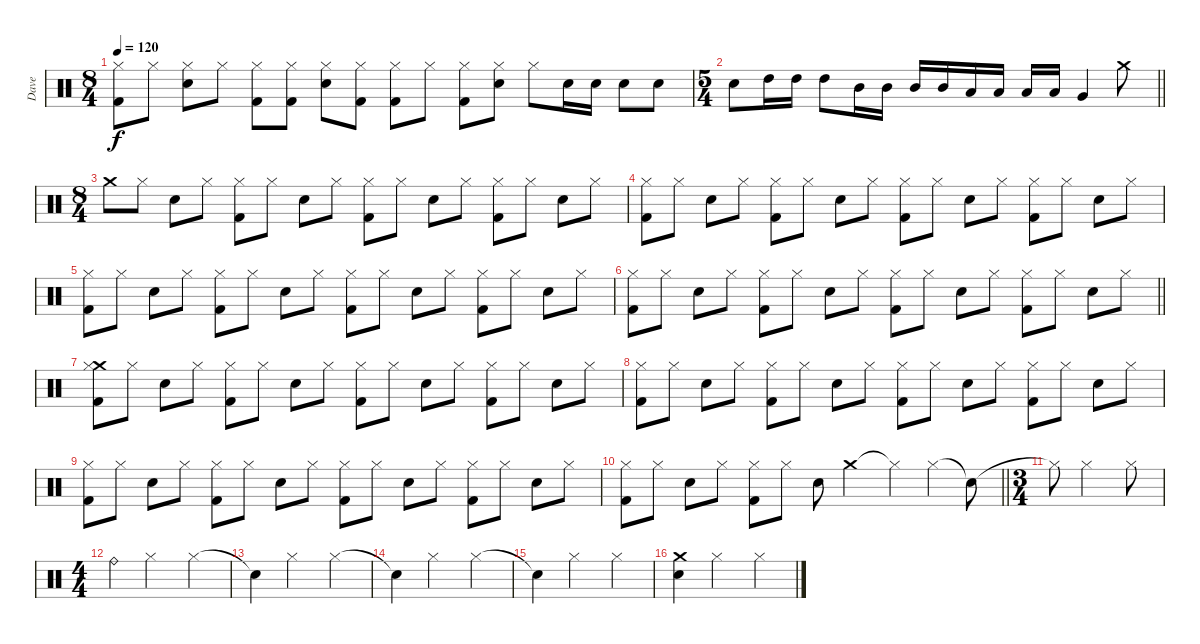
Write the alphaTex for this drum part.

\track ("Dave" "Dave") {instrument percussion}
\staff {score}
\articulation defaults
\ts (8 4)
\tempo 120
\clef neutral
\ks c
("Hi-Hat (closed)" "Kick (hit) 2").8{dy f} "Hi-Hat (closed)".8 ("Hi-Hat (closed)" "Snare (hit) 2").8 "Hi-Hat (closed)".8 ("Hi-Hat (closed)" "Kick (hit) 2").8 ("Hi-Hat (closed)" "Kick (hit) 2").8 ("Hi-Hat (closed)" "Snare (hit) 2").8 ("Hi-Hat (closed)" "Kick (hit) 2").8 ("Hi-Hat (closed)" "Kick (hit) 2").8 "Hi-Hat (closed)".8 ("Hi-Hat (closed)" "Kick (hit) 2").8 ("Hi-Hat (closed)" "Snare (hit) 2").8 "Hi-Hat (closed)".8 "Snare (hit) 2".16 "Snare (hit) 2".16 "Snare (hit) 2".8 "Snare (hit) 2".8 |
\ts (5 4)
\barLineRight lightlight "Snare (hit) 2".8 "High Tom (hit)".16 "High Tom (hit)".16 "High Tom (hit)".8 "Mid Tom (hit)".16 "Mid Tom (hit)".16 "Mid Tom (hit)".16 "Mid Tom (hit)".16 "Low Tom (hit)".16 "Low Tom (hit)".16 "Low Tom (hit)".16 "Low Tom (hit)".16 "Very Low Tom (hit)".4 "Crash medium (hit)".8
|
\ts (8 4)
"Crash medium (hit)".8 "Hi-Hat (closed)".8 "Snare (hit) 2".8 "Hi-Hat (closed)".8 ("Hi-Hat (closed)" "Kick (hit) 2").8 "Hi-Hat (closed)".8 "Snare (hit) 2".8 "Hi-Hat (closed)".8 ("Hi-Hat (closed)" "Kick (hit) 2").8 "Hi-Hat (closed)".8 "Snare (hit) 2".8 "Hi-Hat (closed)".8 ("Hi-Hat (closed)" "Kick (hit) 2").8 "Hi-Hat (closed)".8 "Snare (hit) 2".8 "Hi-Hat (closed)".8 |
("Hi-Hat (closed)" "Kick (hit) 2").8 "Hi-Hat (closed)".8 "Snare (hit) 2".8 "Hi-Hat (closed)".8 ("Hi-Hat (closed)" "Kick (hit) 2").8 "Hi-Hat (closed)".8 "Snare (hit) 2".8 "Hi-Hat (closed)".8 ("Hi-Hat (closed)" "Kick (hit) 2").8 "Hi-Hat (closed)".8 "Snare (hit) 2".8 "Hi-Hat (closed)".8 ("Hi-Hat (closed)" "Kick (hit) 2").8 "Hi-Hat (closed)".8 "Snare (hit) 2".8 "Hi-Hat (closed)".8 |
("Hi-Hat (closed)" "Kick (hit) 2").8 "Hi-Hat (closed)".8 "Snare (hit) 2".8 "Hi-Hat (closed)".8 ("Hi-Hat (closed)" "Kick (hit) 2").8 "Hi-Hat (closed)".8 "Snare (hit) 2".8 "Hi-Hat (closed)".8 ("Hi-Hat (closed)" "Kick (hit) 2").8 "Hi-Hat (closed)".8 "Snare (hit) 2".8 "Hi-Hat (closed)".8 ("Hi-Hat (closed)" "Kick (hit) 2").8 "Hi-Hat (closed)".8 "Snare (hit) 2".8 "Hi-Hat (closed)".8 |
\barLineRight lightlight
("Hi-Hat (closed)" "Kick (hit) 2").8 "Hi-Hat (closed)".8 "Snare (hit) 2".8 "Hi-Hat (closed)".8 ("Hi-Hat (closed)" "Kick (hit) 2").8 "Hi-Hat (closed)".8 "Snare (hit) 2".8 "Hi-Hat (closed)".8 ("Hi-Hat (closed)" "Kick (hit) 2").8 "Hi-Hat (closed)".8 "Snare (hit) 2".8 "Hi-Hat (closed)".8 ("Hi-Hat (closed)" "Kick (hit) 2").8 "Hi-Hat (closed)".8 "Snare (hit) 2".8 "Hi-Hat (closed)".8 |
("Crash medium (hit)" "Hi-Hat (closed)" "Kick (hit) 2").8 "Hi-Hat (closed)".8 "Snare (hit) 2".8 "Hi-Hat (closed)".8 ("Hi-Hat (closed)" "Kick (hit) 2").8 "Hi-Hat (closed)".8 "Snare (hit) 2".8 "Hi-Hat (closed)".8 ("Hi-Hat (closed)" "Kick (hit) 2").8 "Hi-Hat (closed)".8 "Snare (hit) 2".8 "Hi-Hat (closed)".8 ("Hi-Hat (closed)" "Kick (hit) 2").8 "Hi-Hat (closed)".8 "Snare (hit) 2".8 "Hi-Hat (closed)".8 |
("Hi-Hat (closed)" "Kick (hit) 2").8 "Hi-Hat (closed)".8 "Snare (hit) 2".8 "Hi-Hat (closed)".8 ("Hi-Hat (closed)" "Kick (hit) 2").8 "Hi-Hat (closed)".8 "Snare (hit) 2".8 "Hi-Hat (closed)".8 ("Hi-Hat (closed)" "Kick (hit) 2").8 "Hi-Hat (closed)".8 "Snare (hit) 2".8 "Hi-Hat (closed)".8 ("Hi-Hat (closed)" "Kick (hit) 2").8 "Hi-Hat (closed)".8 "Snare (hit) 2".8 "Hi-Hat (closed)".8 |
("Hi-Hat (closed)" "Kick (hit) 2").8 "Hi-Hat (closed)".8 "Snare (hit) 2".8 "Hi-Hat (closed)".8 ("Hi-Hat (closed)" "Kick (hit) 2").8 "Hi-Hat (closed)".8 "Snare (hit) 2".8 "Hi-Hat (closed)".8 ("Hi-Hat (closed)" "Kick (hit) 2").8 "Hi-Hat (closed)".8 "Snare (hit) 2".8 "Hi-Hat (closed)".8 ("Hi-Hat (closed)" "Kick (hit) 2").8 "Hi-Hat (closed)".8 "Snare (hit) 2".8 "Hi-Hat (closed)".8 |
\barLineRight lightlight
("Hi-Hat (closed)" "Kick (hit) 2").8 "Hi-Hat (closed)".8 "Snare (hit) 2".8 "Hi-Hat (closed)".8 ("Hi-Hat (closed)" "Kick (hit) 2").8 "Hi-Hat (closed)".8 "Snare (hit) 2".8 "Crash medium (hit)".2 "Hi-Hat (closed)"{t}.4 "Hi-Hat (closed)".4 "Snare (hit)"{t}.8 |
\ts (3 4)
"Hi-Hat (closed)"{t}.8 "Hi-Hat (closed)".2 "Hi-Hat (closed)".8 |
\ts (4 4)
"Ride (bell)".4 "Hi-Hat (closed)".2 "Hi-Hat (closed)".4 |
"Snare (hit)"{t}.4 "Hi-Hat (closed)".2 "Hi-Hat (closed)".4 |
"Snare (hit)"{t}.4 "Hi-Hat (closed)".2 "Hi-Hat (closed)".4 |
"Snare (hit)"{t}.4 "Hi-Hat (closed)".2 "Hi-Hat (closed)".4 |
("Crash medium (hit)" "Snare (hit)").4 "Hi-Hat (closed)".2 "Hi-Hat (closed)".4
